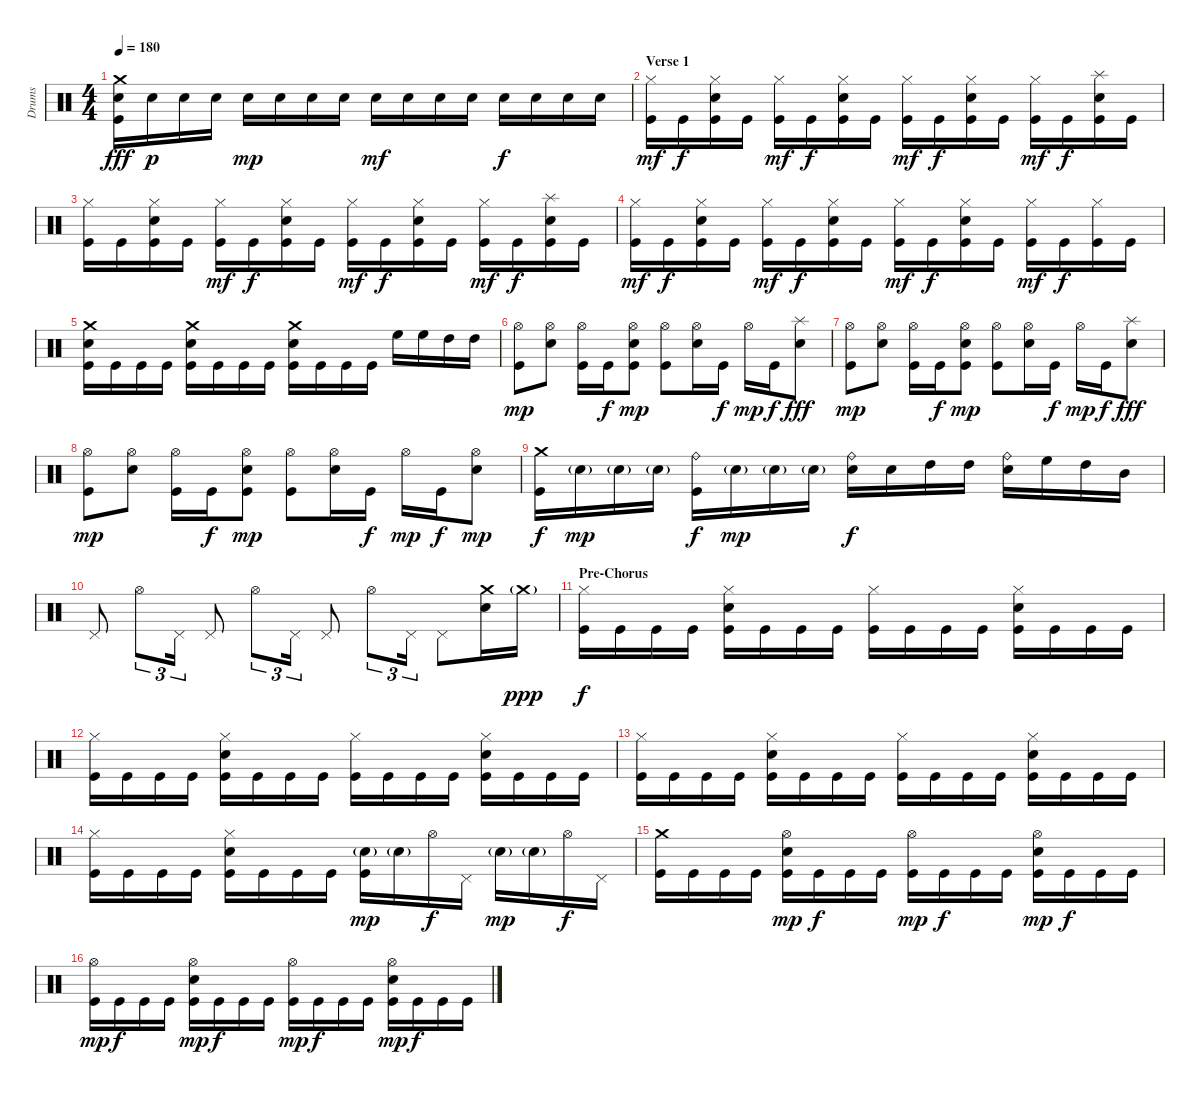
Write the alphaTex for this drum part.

\track ("Drums" "Drums") {instrument percussion}
\staff {score}
\articulation defaults
\ts (4 4)
\tempo 180
\clef neutral
\ks c
("Crash medium (hit)" "Electric Snare (hit)" "Kick (hit)").16{dy fff} "Electric Snare (hit)".16{dy p} "Electric Snare (hit)".16 "Electric Snare (hit)".16 "Electric Snare (hit)".16{dy mp} "Electric Snare (hit)".16 "Electric Snare (hit)".16 "Electric Snare (hit)".16 "Electric Snare (hit)".16{dy mf} "Electric Snare (hit)".16 "Electric Snare (hit)".16 "Electric Snare (hit)".16 "Electric Snare (hit)".16{dy f} "Electric Snare (hit)".16 "Electric Snare (hit)".16 "Electric Snare (hit)".16 |
\section ("" "Verse 1")
("Hi-Hat (closed)" "Kick (hit)").16{dy mf} "Kick (hit)".16{dy f} ("Hi-Hat (closed)" "Electric Snare (hit)" "Kick (hit)").16 "Kick (hit)".16 ("Hi-Hat (closed)" "Kick (hit)").16{dy mf} "Kick (hit)".16{dy f} ("Hi-Hat (closed)" "Electric Snare (hit)" "Kick (hit)").16 "Kick (hit)".16 ("Hi-Hat (closed)" "Kick (hit)").16{dy mf} "Kick (hit)".16{dy f} ("Hi-Hat (closed)" "Electric Snare (hit)" "Kick (hit)").16 "Kick (hit)".16 ("Hi-Hat (closed)" "Kick (hit)").16{dy mf} "Kick (hit)".16{dy f} ("Splash (hit)" "Electric Snare (hit)" "Kick (hit)").16 "Kick (hit)".16 |
("Hi-Hat (closed)" "Kick (hit)").16 "Kick (hit)".16 ("Hi-Hat (closed)" "Electric Snare (hit)" "Kick (hit)").16 "Kick (hit)".16 ("Hi-Hat (closed)" "Kick (hit)").16{dy mf} "Kick (hit)".16{dy f} ("Hi-Hat (closed)" "Electric Snare (hit)" "Kick (hit)").16 "Kick (hit)".16 ("Hi-Hat (closed)" "Kick (hit)").16{dy mf} "Kick (hit)".16{dy f} ("Hi-Hat (closed)" "Electric Snare (hit)" "Kick (hit)").16 "Kick (hit)".16 ("Hi-Hat (closed)" "Kick (hit)").16{dy mf} "Kick (hit)".16{dy f} ("Splash (hit)" "Electric Snare (hit)" "Kick (hit)").16 "Kick (hit)".16 |
("Hi-Hat (closed)" "Kick (hit)").16{dy mf} "Kick (hit)".16{dy f} ("Hi-Hat (closed)" "Electric Snare (hit)" "Kick (hit)").16 "Kick (hit)".16 ("Hi-Hat (closed)" "Kick (hit)").16{dy mf} "Kick (hit)".16{dy f} ("Hi-Hat (closed)" "Electric Snare (hit)" "Kick (hit)").16 "Kick (hit)".16 ("Hi-Hat (closed)" "Kick (hit)").16{dy mf} "Kick (hit)".16{dy f} ("Hi-Hat (closed)" "Electric Snare (hit)" "Kick (hit)").16 "Kick (hit)".16 ("Hi-Hat (closed)" "Kick (hit)").16{dy mf} "Kick (hit)".16{dy f} ("Hi-Hat (closed)" "Kick (hit)").16 "Kick (hit)".16 |
("Crash medium (hit)" "Electric Snare (hit)" "Kick (hit)").16 "Kick (hit)".16 "Kick (hit)".16 "Kick (hit)".16 ("Crash medium (hit)" "Electric Snare (hit)" "Kick (hit)").16 "Kick (hit)".16 "Kick (hit)".16 "Kick (hit)".16 ("Crash medium (hit)" "Electric Snare (hit)" "Kick (hit)").16 "Kick (hit)".16 "Kick (hit)".16 "Kick (hit)".16 "High Floor Tom (hit)".16 "High Floor Tom (hit)".16 "High Tom (hit)".16 "High Tom (hit)".16 |
("Hi-Hat (open)" "Kick (hit)").8{dy mp} ("Hi-Hat (open)" "Electric Snare (hit)").8 ("Hi-Hat (open)" "Kick (hit)").16 "Kick (hit)".16{dy f} ("Hi-Hat (open)" "Electric Snare (hit)" "Kick (hit)").8{dy mp} ("Hi-Hat (open)" "Kick (hit)").8 ("Hi-Hat (open)" "Electric Snare (hit)").16 "Kick (hit)".16{dy f} "Hi-Hat (open)".16{dy mp} "Kick (hit)".16{dy f} ("Splash (hit)" "Electric Snare (hit)").8{dy fff} |
("Hi-Hat (open)" "Kick (hit)").8{dy mp} ("Hi-Hat (open)" "Electric Snare (hit)").8 ("Hi-Hat (open)" "Kick (hit)").16 "Kick (hit)".16{dy f} ("Hi-Hat (open)" "Electric Snare (hit)" "Kick (hit)").8{dy mp} ("Hi-Hat (open)" "Kick (hit)").8 ("Hi-Hat (open)" "Electric Snare (hit)").16 "Kick (hit)".16{dy f} "Hi-Hat (open)".16{dy mp} "Kick (hit)".16{dy f} ("Splash (hit)" "Electric Snare (hit)").8{dy fff} |
("Hi-Hat (open)" "Kick (hit)").8{dy mp} ("Hi-Hat (open)" "Electric Snare (hit)").8 ("Hi-Hat (open)" "Kick (hit)").16 "Kick (hit)".16{dy f} ("Hi-Hat (open)" "Electric Snare (hit)" "Kick (hit)").8{dy mp} ("Hi-Hat (open)" "Kick (hit)").8 ("Hi-Hat (open)" "Electric Snare (hit)").16 "Kick (hit)".16{dy f} "Hi-Hat (open)".16{dy mp} "Kick (hit)".16{dy f} ("Hi-Hat (open)" "Electric Snare (hit)").8{dy mp} |
("Crash medium (hit)" "Kick (hit)").16{dy f} "Electric Snare (hit)"{g}.16{dy mp} "Electric Snare (hit)"{g}.16 "Electric Snare (hit)"{g}.16 ("Ride (bell)" "Kick (hit)").16{dy f} "Electric Snare (hit)"{g}.16{dy mp} "Electric Snare (hit)"{g}.16 "Electric Snare (hit)"{g}.16 ("Ride (bell)" "Electric Snare (hit)").16{dy f} "Electric Snare (hit)".16 "High Tom (hit)".16 "High Tom (hit)".16 ("Ride (bell)" "Electric Snare (hit)").16 "High Floor Tom (hit)".16 "High Tom (hit)".16 "Mid Tom (hit)".16 |
"Pedal Hi-Hat (hit)".8 "Hi-Hat (open)".8{tu (3 2)} "Pedal Hi-Hat (hit)".16{tu (3 2)} "Pedal Hi-Hat (hit)".8 "Hi-Hat (open)".8{tu (3 2)} "Pedal Hi-Hat (hit)".16{tu (3 2)} "Pedal Hi-Hat (hit)".8 "Hi-Hat (open)".8{tu (3 2)} "Pedal Hi-Hat (hit)".16{tu (3 2)} "Pedal Hi-Hat (hit)".8 ("Crash medium (hit)" "Electric Snare (hit)").16 "Crash medium (hit)"{g}.16{dy ppp} |
\section ("" "Pre-Chorus")
("Hi-Hat (closed)" "Kick (hit)").16{dy f} "Kick (hit)".16 "Kick (hit)".16 "Kick (hit)".16 ("Hi-Hat (closed)" "Electric Snare (hit)" "Kick (hit)").16 "Kick (hit)".16 "Kick (hit)".16 "Kick (hit)".16 ("Hi-Hat (closed)" "Kick (hit)").16 "Kick (hit)".16 "Kick (hit)".16 "Kick (hit)".16 ("Hi-Hat (closed)" "Electric Snare (hit)" "Kick (hit)").16 "Kick (hit)".16 "Kick (hit)".16 "Kick (hit)".16 |
("Hi-Hat (closed)" "Kick (hit)").16 "Kick (hit)".16 "Kick (hit)".16 "Kick (hit)".16 ("Hi-Hat (closed)" "Electric Snare (hit)" "Kick (hit)").16 "Kick (hit)".16 "Kick (hit)".16 "Kick (hit)".16 ("Hi-Hat (closed)" "Kick (hit)").16 "Kick (hit)".16 "Kick (hit)".16 "Kick (hit)".16 ("Hi-Hat (closed)" "Electric Snare (hit)" "Kick (hit)").16 "Kick (hit)".16 "Kick (hit)".16 "Kick (hit)".16 |
("Hi-Hat (closed)" "Kick (hit)").16 "Kick (hit)".16 "Kick (hit)".16 "Kick (hit)".16 ("Hi-Hat (closed)" "Electric Snare (hit)" "Kick (hit)").16 "Kick (hit)".16 "Kick (hit)".16 "Kick (hit)".16 ("Hi-Hat (closed)" "Kick (hit)").16 "Kick (hit)".16 "Kick (hit)".16 "Kick (hit)".16 ("Hi-Hat (closed)" "Electric Snare (hit)" "Kick (hit)").16 "Kick (hit)".16 "Kick (hit)".16 "Kick (hit)".16 |
("Hi-Hat (closed)" "Kick (hit)").16 "Kick (hit)".16 "Kick (hit)".16 "Kick (hit)".16 ("Hi-Hat (closed)" "Electric Snare (hit)" "Kick (hit)").16 "Kick (hit)".16 "Kick (hit)".16 "Kick (hit)".16 ("Electric Snare (hit)"{g} "Kick (hit)").16{dy mp} "Electric Snare (hit)"{g}.16 "Hi-Hat (open)".16{dy f} "Pedal Hi-Hat (hit)".16 "Electric Snare (hit)"{g}.16{dy mp} "Electric Snare (hit)"{g}.16 "Hi-Hat (open)".16{dy f} "Pedal Hi-Hat (hit)".16 |
("Crash medium (hit)" "Kick (hit)").16 "Kick (hit)".16 "Kick (hit)".16 "Kick (hit)".16 ("Hi-Hat (open)" "Electric Snare (hit)" "Kick (hit)").16{dy mp} "Kick (hit)".16{dy f} "Kick (hit)".16 "Kick (hit)".16 ("Hi-Hat (open)" "Kick (hit)").16{dy mp} "Kick (hit)".16{dy f} "Kick (hit)".16 "Kick (hit)".16 ("Hi-Hat (open)" "Electric Snare (hit)" "Kick (hit)").16{dy mp} "Kick (hit)".16{dy f} "Kick (hit)".16 "Kick (hit)".16 |
("Hi-Hat (open)" "Kick (hit)").16{dy mp} "Kick (hit)".16{dy f} "Kick (hit)".16 "Kick (hit)".16 ("Hi-Hat (open)" "Electric Snare (hit)" "Kick (hit)").16{dy mp} "Kick (hit)".16{dy f} "Kick (hit)".16 "Kick (hit)".16 ("Hi-Hat (open)" "Kick (hit)").16{dy mp} "Kick (hit)".16{dy f} "Kick (hit)".16 "Kick (hit)".16 ("Hi-Hat (open)" "Electric Snare (hit)" "Kick (hit)").16{dy mp} "Kick (hit)".16{dy f} "Kick (hit)".16 "Kick (hit)".16
